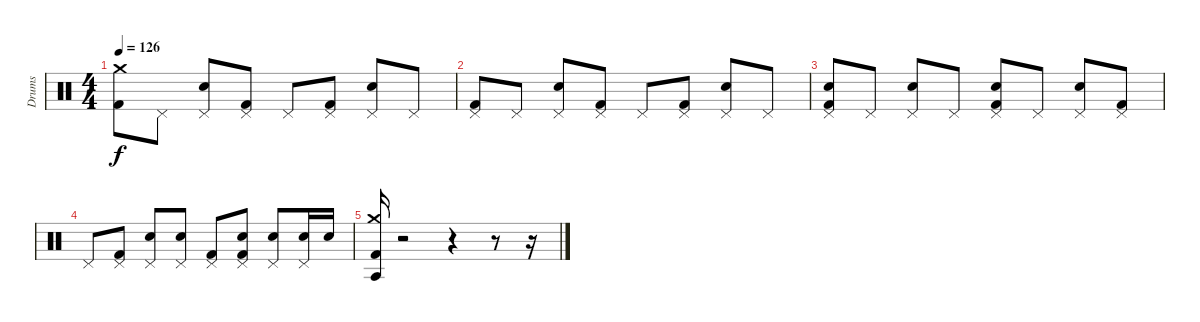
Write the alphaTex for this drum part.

\track ("Drums" "Drums") {instrument percussion}
\staff {score}
\articulation defaults
\ts (4 4)
\tempo 126
\clef neutral
\ks c
("Crash medium (hit)" "Kick (hit) 2").8{dy f} "Pedal Hi-Hat (hit)".8 ("Pedal Hi-Hat (hit)" "Snare (hit) 2").8 ("Pedal Hi-Hat (hit)" "Kick (hit) 2").8 "Pedal Hi-Hat (hit)".8 ("Pedal Hi-Hat (hit)" "Kick (hit) 2").8 ("Pedal Hi-Hat (hit)" "Snare (hit) 2").8 "Pedal Hi-Hat (hit)".8 |
("Pedal Hi-Hat (hit)" "Kick (hit) 2").8 "Pedal Hi-Hat (hit)".8 ("Pedal Hi-Hat (hit)" "Snare (hit) 2").8 ("Pedal Hi-Hat (hit)" "Kick (hit) 2").8 "Pedal Hi-Hat (hit)".8 ("Pedal Hi-Hat (hit)" "Kick (hit) 2").8 ("Pedal Hi-Hat (hit)" "Snare (hit) 2").8 "Pedal Hi-Hat (hit)".8 |
("Pedal Hi-Hat (hit)" "Snare (hit) 2" "Kick (hit) 2").8 "Pedal Hi-Hat (hit)".8 ("Pedal Hi-Hat (hit)" "Snare (hit) 2").8 "Pedal Hi-Hat (hit)".8 ("Pedal Hi-Hat (hit)" "Snare (hit) 2" "Kick (hit) 2").8 "Pedal Hi-Hat (hit)".8 ("Pedal Hi-Hat (hit)" "Snare (hit) 2").8 ("Pedal Hi-Hat (hit)" "Kick (hit) 2").8 |
"Pedal Hi-Hat (hit)".8 ("Pedal Hi-Hat (hit)" "Kick (hit) 2").8 ("Pedal Hi-Hat (hit)" "Snare (hit) 2").8 ("Pedal Hi-Hat (hit)" "Snare (hit) 2").8 ("Pedal Hi-Hat (hit)" "Kick (hit) 2").8 ("Pedal Hi-Hat (hit)" "Snare (hit) 2" "Kick (hit) 2").8 ("Pedal Hi-Hat (hit)" "Snare (hit) 2").8 ("Pedal Hi-Hat (hit)" "Snare (hit) 2").16 "Snare (hit) 2".16 |
("Agogo tow (hit)" "Crash medium (hit)" "Kick (hit) 2").16 r.2 r.4 r.8 r.16
